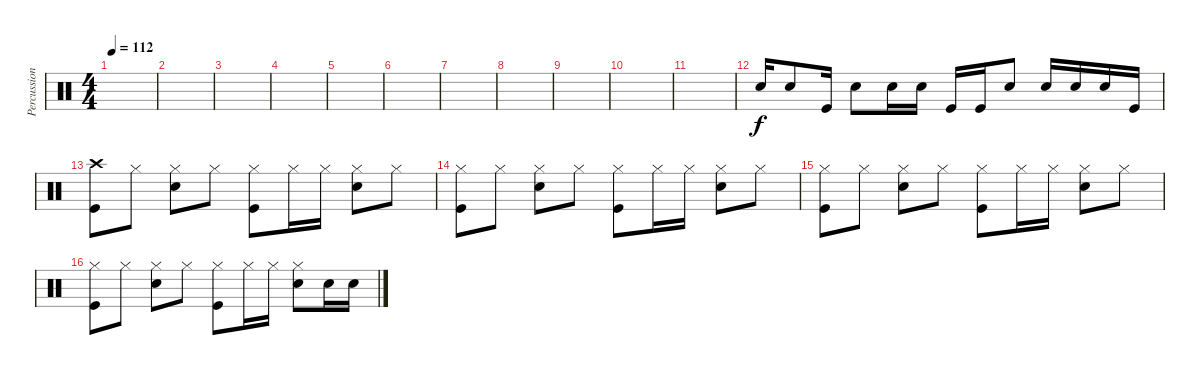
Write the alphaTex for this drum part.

\track ("Percussion" "Percussion") {instrument percussion}
\staff {score}
\articulation defaults
\ts (4 4)
\tempo 112
\clef neutral
\ks c
|
|
|
|
|
|
|
|
|
|
|
"Snare (hit) 2".16 "Snare (hit) 2".8 "Kick (hit)".16 "Snare (hit) 2".8 "Snare (hit) 2".16 "Snare (hit) 2".16 "Kick (hit)".16 "Kick (hit)".16 "Snare (hit) 2".8 "Snare (hit) 2".16 "Snare (hit) 2".16 "Snare (hit) 2".16 "Kick (hit)".16 |
("Crash high (hit)" "Kick (hit)").8 "Hi-Hat (closed)".8 ("Hi-Hat (closed)" "Snare (hit) 2").8 "Hi-Hat (closed)".8 ("Hi-Hat (closed)" "Kick (hit)").8 "Hi-Hat (closed)".16 "Hi-Hat (closed)".16 ("Hi-Hat (closed)" "Snare (hit) 2").8 "Hi-Hat (closed)".8 |
("Hi-Hat (closed)" "Kick (hit)").8 "Hi-Hat (closed)".8 ("Hi-Hat (closed)" "Snare (hit) 2").8 "Hi-Hat (closed)".8 ("Hi-Hat (closed)" "Kick (hit)").8 "Hi-Hat (closed)".16 "Hi-Hat (closed)".16 ("Hi-Hat (closed)" "Snare (hit) 2").8 "Hi-Hat (closed)".8 |
("Hi-Hat (closed)" "Kick (hit)").8 "Hi-Hat (closed)".8 ("Hi-Hat (closed)" "Snare (hit) 2").8 "Hi-Hat (closed)".8 ("Hi-Hat (closed)" "Kick (hit)").8 "Hi-Hat (closed)".16 "Hi-Hat (closed)".16 ("Hi-Hat (closed)" "Snare (hit) 2").8 "Hi-Hat (closed)".8 |
("Hi-Hat (closed)" "Kick (hit)").8 "Hi-Hat (closed)".8 ("Hi-Hat (closed)" "Snare (hit) 2").8 "Hi-Hat (closed)".8 ("Hi-Hat (closed)" "Kick (hit)").8 "Hi-Hat (closed)".16 "Hi-Hat (closed)".16 ("Hi-Hat (closed)" "Snare (hit) 2").8 "Snare (hit) 2".16 "Snare (hit) 2".16
